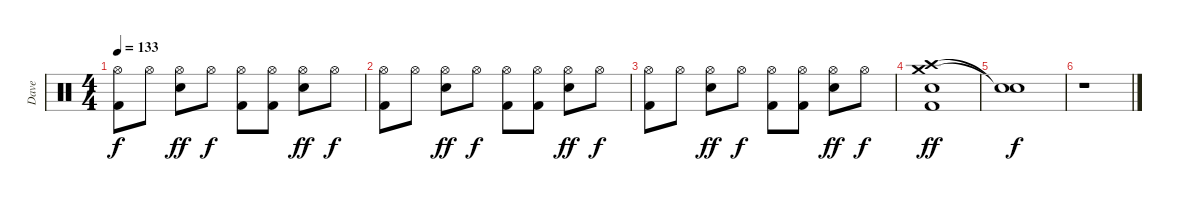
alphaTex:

\track ("Dave" "Dave") {instrument percussion}
\staff {score}
\articulation defaults
\ts (4 4)
\tempo 133
\clef neutral
\ks c
("Hi-Hat (open)" "Kick (hit) 2").8{dy f} "Hi-Hat (open)".8 ("Hi-Hat (open)" "Snare (hit) 2").8{dy ff} "Hi-Hat (open)".8{dy f} ("Hi-Hat (open)" "Kick (hit) 2").8 ("Hi-Hat (open)" "Kick (hit) 2").8 ("Hi-Hat (open)" "Snare (hit) 2").8{dy ff} "Hi-Hat (open)".8{dy f} |
("Hi-Hat (open)" "Kick (hit) 2").8 "Hi-Hat (open)".8 ("Hi-Hat (open)" "Snare (hit) 2").8{dy ff} "Hi-Hat (open)".8{dy f} ("Hi-Hat (open)" "Kick (hit) 2").8 ("Hi-Hat (open)" "Kick (hit) 2").8 ("Hi-Hat (open)" "Snare (hit) 2").8{dy ff} "Hi-Hat (open)".8{dy f} |
("Hi-Hat (open)" "Kick (hit) 2").8 "Hi-Hat (open)".8 ("Hi-Hat (open)" "Snare (hit) 2").8{dy ff} "Hi-Hat (open)".8{dy f} ("Hi-Hat (open)" "Kick (hit) 2").8 ("Hi-Hat (open)" "Kick (hit) 2").8 ("Hi-Hat (open)" "Snare (hit) 2").8{dy ff} "Hi-Hat (open)".8{dy f} |
("Crash medium (hit)" "Crash high (hit)" "Snare (hit) 2" "Kick (hit) 2").1{dy ff} |
("Snare (hit)"{t} "Snare (hit)"{t}).1{dy f} |
r.1
